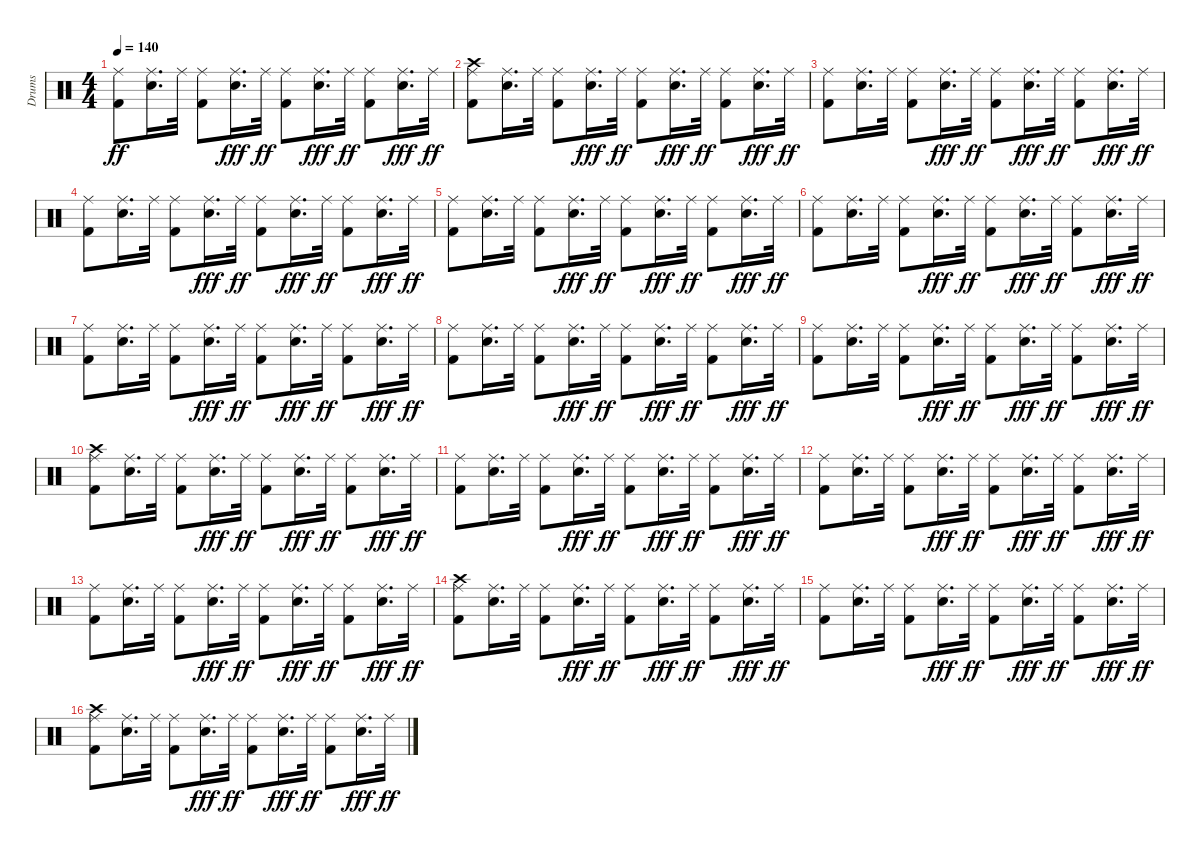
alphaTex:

\track ("Drums" "Drums") {instrument percussion}
\staff {score}
\articulation defaults
\ts (4 4)
\tempo 140
\clef neutral
\ks c
("Kick (hit) 2" "Ride (middle)").8{dy ff} ("Ride (middle)" "Snare (hit) 2").16{d} "Ride (middle)".32 ("Kick (hit) 2" "Ride (middle)").8 ("Ride (middle)" "Snare (hit) 2").16{d dy fff} "Ride (middle)".32{dy ff} ("Kick (hit) 2" "Ride (middle)").8 ("Ride (middle)" "Snare (hit) 2").16{d dy fff} "Ride (middle)".32{dy ff} ("Kick (hit) 2" "Ride (middle)").8 ("Ride (middle)" "Snare (hit) 2").16{d dy fff} "Ride (middle)".32{dy ff} |
("Kick (hit) 2" "Crash high (hit)" "Ride (middle)").8 ("Ride (middle)" "Snare (hit) 2").16{d} "Ride (middle)".32 ("Kick (hit) 2" "Ride (middle)").8 ("Ride (middle)" "Snare (hit) 2").16{d dy fff} "Ride (middle)".32{dy ff} ("Kick (hit) 2" "Ride (middle)").8 ("Ride (middle)" "Snare (hit) 2").16{d dy fff} "Ride (middle)".32{dy ff} ("Kick (hit) 2" "Ride (middle)").8 ("Ride (middle)" "Snare (hit) 2").16{d dy fff} "Ride (middle)".32{dy ff} |
("Kick (hit) 2" "Ride (middle)").8 ("Ride (middle)" "Snare (hit) 2").16{d} "Ride (middle)".32 ("Kick (hit) 2" "Ride (middle)").8 ("Ride (middle)" "Snare (hit) 2").16{d dy fff} "Ride (middle)".32{dy ff} ("Kick (hit) 2" "Ride (middle)").8 ("Ride (middle)" "Snare (hit) 2").16{d dy fff} "Ride (middle)".32{dy ff} ("Kick (hit) 2" "Ride (middle)").8 ("Ride (middle)" "Snare (hit) 2").16{d dy fff} "Ride (middle)".32{dy ff} |
("Kick (hit) 2" "Ride (middle)").8 ("Ride (middle)" "Snare (hit) 2").16{d} "Ride (middle)".32 ("Kick (hit) 2" "Ride (middle)").8 ("Ride (middle)" "Snare (hit) 2").16{d dy fff} "Ride (middle)".32{dy ff} ("Kick (hit) 2" "Ride (middle)").8 ("Ride (middle)" "Snare (hit) 2").16{d dy fff} "Ride (middle)".32{dy ff} ("Kick (hit) 2" "Ride (middle)").8 ("Ride (middle)" "Snare (hit) 2").16{d dy fff} "Ride (middle)".32{dy ff} |
("Kick (hit) 2" "Ride (middle)").8 ("Ride (middle)" "Snare (hit) 2").16{d} "Ride (middle)".32 ("Kick (hit) 2" "Ride (middle)").8 ("Ride (middle)" "Snare (hit) 2").16{d dy fff} "Ride (middle)".32{dy ff} ("Kick (hit) 2" "Ride (middle)").8 ("Ride (middle)" "Snare (hit) 2").16{d dy fff} "Ride (middle)".32{dy ff} ("Kick (hit) 2" "Ride (middle)").8 ("Ride (middle)" "Snare (hit) 2").16{d dy fff} "Ride (middle)".32{dy ff} |
("Kick (hit) 2" "Ride (middle)").8 ("Ride (middle)" "Snare (hit) 2").16{d} "Ride (middle)".32 ("Kick (hit) 2" "Ride (middle)").8 ("Ride (middle)" "Snare (hit) 2").16{d dy fff} "Ride (middle)".32{dy ff} ("Kick (hit) 2" "Ride (middle)").8 ("Ride (middle)" "Snare (hit) 2").16{d dy fff} "Ride (middle)".32{dy ff} ("Kick (hit) 2" "Ride (middle)").8 ("Ride (middle)" "Snare (hit) 2").16{d dy fff} "Ride (middle)".32{dy ff} |
("Kick (hit) 2" "Ride (middle)").8 ("Ride (middle)" "Snare (hit) 2").16{d} "Ride (middle)".32 ("Kick (hit) 2" "Ride (middle)").8 ("Ride (middle)" "Snare (hit) 2").16{d dy fff} "Ride (middle)".32{dy ff} ("Kick (hit) 2" "Ride (middle)").8 ("Ride (middle)" "Snare (hit) 2").16{d dy fff} "Ride (middle)".32{dy ff} ("Kick (hit) 2" "Ride (middle)").8 ("Ride (middle)" "Snare (hit) 2").16{d dy fff} "Ride (middle)".32{dy ff} |
("Kick (hit) 2" "Ride (middle)").8 ("Ride (middle)" "Snare (hit) 2").16{d} "Ride (middle)".32 ("Kick (hit) 2" "Ride (middle)").8 ("Ride (middle)" "Snare (hit) 2").16{d dy fff} "Ride (middle)".32{dy ff} ("Kick (hit) 2" "Ride (middle)").8 ("Ride (middle)" "Snare (hit) 2").16{d dy fff} "Ride (middle)".32{dy ff} ("Kick (hit) 2" "Ride (middle)").8 ("Ride (middle)" "Snare (hit) 2").16{d dy fff} "Ride (middle)".32{dy ff} |
("Kick (hit) 2" "Ride (middle)").8 ("Ride (middle)" "Snare (hit) 2").16{d} "Ride (middle)".32 ("Kick (hit) 2" "Ride (middle)").8 ("Ride (middle)" "Snare (hit) 2").16{d dy fff} "Ride (middle)".32{dy ff} ("Kick (hit) 2" "Ride (middle)").8 ("Ride (middle)" "Snare (hit) 2").16{d dy fff} "Ride (middle)".32{dy ff} ("Kick (hit) 2" "Ride (middle)").8 ("Ride (middle)" "Snare (hit) 2").16{d dy fff} "Ride (middle)".32{dy ff} |
("Kick (hit) 2" "Crash high (hit)" "Ride (middle)").8 ("Ride (middle)" "Snare (hit) 2").16{d} "Ride (middle)".32 ("Kick (hit) 2" "Ride (middle)").8 ("Ride (middle)" "Snare (hit) 2").16{d dy fff} "Ride (middle)".32{dy ff} ("Kick (hit) 2" "Ride (middle)").8 ("Ride (middle)" "Snare (hit) 2").16{d dy fff} "Ride (middle)".32{dy ff} ("Kick (hit) 2" "Ride (middle)").8 ("Ride (middle)" "Snare (hit) 2").16{d dy fff} "Ride (middle)".32{dy ff} |
("Kick (hit) 2" "Ride (middle)").8 ("Ride (middle)" "Snare (hit) 2").16{d} "Ride (middle)".32 ("Kick (hit) 2" "Ride (middle)").8 ("Ride (middle)" "Snare (hit) 2").16{d dy fff} "Ride (middle)".32{dy ff} ("Kick (hit) 2" "Ride (middle)").8 ("Ride (middle)" "Snare (hit) 2").16{d dy fff} "Ride (middle)".32{dy ff} ("Kick (hit) 2" "Ride (middle)").8 ("Ride (middle)" "Snare (hit) 2").16{d dy fff} "Ride (middle)".32{dy ff} |
("Kick (hit) 2" "Ride (middle)").8 ("Ride (middle)" "Snare (hit) 2").16{d} "Ride (middle)".32 ("Kick (hit) 2" "Ride (middle)").8 ("Ride (middle)" "Snare (hit) 2").16{d dy fff} "Ride (middle)".32{dy ff} ("Kick (hit) 2" "Ride (middle)").8 ("Ride (middle)" "Snare (hit) 2").16{d dy fff} "Ride (middle)".32{dy ff} ("Kick (hit) 2" "Ride (middle)").8 ("Ride (middle)" "Snare (hit) 2").16{d dy fff} "Ride (middle)".32{dy ff} |
("Kick (hit) 2" "Ride (middle)").8 ("Ride (middle)" "Snare (hit) 2").16{d} "Ride (middle)".32 ("Kick (hit) 2" "Ride (middle)").8 ("Ride (middle)" "Snare (hit) 2").16{d dy fff} "Ride (middle)".32{dy ff} ("Kick (hit) 2" "Ride (middle)").8 ("Ride (middle)" "Snare (hit) 2").16{d dy fff} "Ride (middle)".32{dy ff} ("Kick (hit) 2" "Ride (middle)").8 ("Ride (middle)" "Snare (hit) 2").16{d dy fff} "Ride (middle)".32{dy ff} |
("Kick (hit) 2" "Crash high (hit)" "Ride (middle)").8 ("Ride (middle)" "Snare (hit) 2").16{d} "Ride (middle)".32 ("Kick (hit) 2" "Ride (middle)").8 ("Ride (middle)" "Snare (hit) 2").16{d dy fff} "Ride (middle)".32{dy ff} ("Kick (hit) 2" "Ride (middle)").8 ("Ride (middle)" "Snare (hit) 2").16{d dy fff} "Ride (middle)".32{dy ff} ("Kick (hit) 2" "Ride (middle)").8 ("Ride (middle)" "Snare (hit) 2").16{d dy fff} "Ride (middle)".32{dy ff} |
("Kick (hit) 2" "Ride (middle)").8 ("Ride (middle)" "Snare (hit) 2").16{d} "Ride (middle)".32 ("Kick (hit) 2" "Ride (middle)").8 ("Ride (middle)" "Snare (hit) 2").16{d dy fff} "Ride (middle)".32{dy ff} ("Kick (hit) 2" "Ride (middle)").8 ("Ride (middle)" "Snare (hit) 2").16{d dy fff} "Ride (middle)".32{dy ff} ("Kick (hit) 2" "Ride (middle)").8 ("Ride (middle)" "Snare (hit) 2").16{d dy fff} "Ride (middle)".32{dy ff} |
("Kick (hit) 2" "Crash high (hit)" "Ride (middle)").8 ("Ride (middle)" "Snare (hit) 2").16{d} "Ride (middle)".32 ("Kick (hit) 2" "Ride (middle)").8 ("Ride (middle)" "Snare (hit) 2").16{d dy fff} "Ride (middle)".32{dy ff} ("Kick (hit) 2" "Ride (middle)").8 ("Ride (middle)" "Snare (hit) 2").16{d dy fff} "Ride (middle)".32{dy ff} ("Kick (hit) 2" "Ride (middle)").8 ("Ride (middle)" "Snare (hit) 2").16{d dy fff} "Ride (middle)".32{dy ff}
